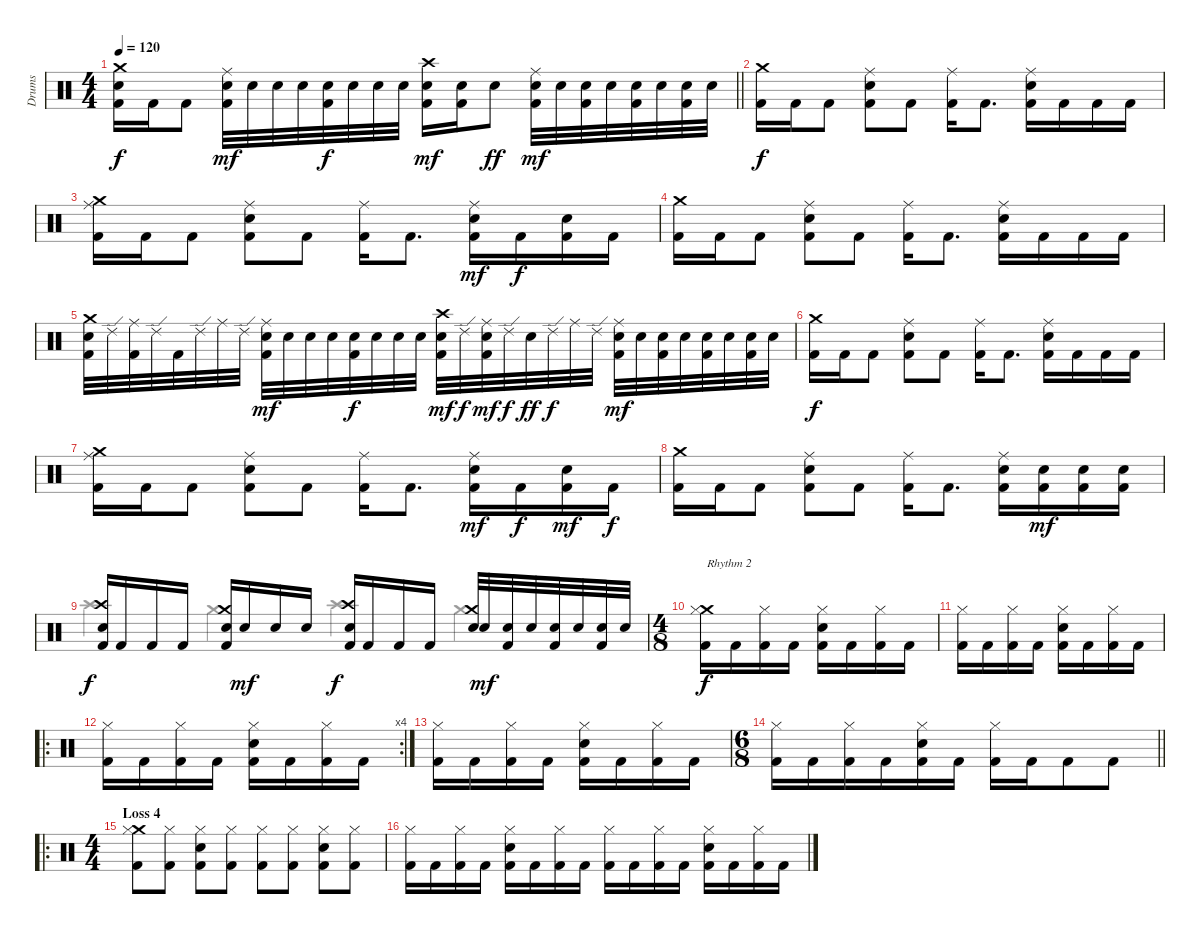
\track ("Drums" "Drums") {instrument percussion}
\staff {score}
\articulation defaults
\voice
\ts (4 4)
\tempo 120
\clef neutral
\barLineRight lightlight
\ks c
("Crash medium (hit)" "Electric Snare (hit)" "Kick (hit) 2").16{dy f} "Kick (hit) 2".16 "Kick (hit) 2".8 ("Ride (middle)" "Electric Snare (hit)" "Kick (hit) 2").32{dy mf} "Electric Snare (hit)".32 "Electric Snare (hit)".32 "Electric Snare (hit)".32 ("Electric Snare (hit)" "Kick (hit) 2").32{dy f} "Electric Snare (hit)".32 "Electric Snare (hit)".32 "Electric Snare (hit)".32 ("Crash high (hit)" "Electric Snare (hit)" "Kick (hit) 2").16{dy mf} ("Electric Snare (hit)" "Kick (hit) 2").16 "Electric Snare (hit)".8{dy ff} ("Ride (middle)" "Electric Snare (hit)" "Kick (hit) 2").32{dy mf} "Electric Snare (hit)".32 ("Electric Snare (hit)" "Kick (hit) 2").32 "Electric Snare (hit)".32 ("Electric Snare (hit)" "Kick (hit) 2").32 "Electric Snare (hit)".32 ("Electric Snare (hit)" "Kick (hit) 2").32 "Electric Snare (hit)".32 |
("Crash medium (hit)" "Kick (hit) 2").16{dy f} "Kick (hit) 2".16 "Kick (hit) 2".8 ("Ride (middle)" "Electric Snare (hit)" "Kick (hit) 2").8 "Kick (hit) 2".8 ("Ride (middle)" "Kick (hit) 2").16 "Kick (hit) 2".8{d} ("Ride (middle)" "Electric Snare (hit)" "Kick (hit) 2").16 "Kick (hit) 2".16 "Kick (hit) 2".16 "Kick (hit) 2".16 |
("Crash medium (hit)" "Ride (middle)" "Kick (hit) 2").16 "Kick (hit) 2".16 "Kick (hit) 2".8 ("Ride (middle)" "Electric Snare (hit)" "Kick (hit) 2").8 "Kick (hit) 2".8 ("Ride (middle)" "Kick (hit) 2").16 "Kick (hit) 2".8{d} ("Ride (middle)" "Electric Snare (hit)" "Kick (hit) 2").16{dy mf} "Kick (hit) 2".16{dy f} ("Electric Snare (hit)" "Kick (hit) 2").16 "Kick (hit) 2".16 |
("Crash medium (hit)" "Kick (hit) 2").16 "Kick (hit) 2".16 "Kick (hit) 2".8 ("Ride (middle)" "Electric Snare (hit)" "Kick (hit) 2").8 "Kick (hit) 2".8 ("Ride (middle)" "Kick (hit) 2").16 "Kick (hit) 2".8{d} ("Ride (middle)" "Electric Snare (hit)" "Kick (hit) 2").16 "Kick (hit) 2".16 "Kick (hit) 2".16 "Kick (hit) 2".16 |
("Crash medium (hit)" "Electric Snare (hit)" "Kick (hit) 2").32 "Ride (edge) 2".32 ("Ride (middle)" "Kick (hit) 2").32 "Ride (edge) 2".32 "Kick (hit) 2".32 "Ride (edge) 2".32 "Ride (middle)".32 "Ride (edge) 2".32 ("Ride (middle)" "Electric Snare (hit)" "Kick (hit) 2").32{dy mf} "Electric Snare (hit)".32 "Electric Snare (hit)".32 "Electric Snare (hit)".32 ("Electric Snare (hit)" "Kick (hit) 2").32{dy f} "Electric Snare (hit)".32 "Electric Snare (hit)".32 "Electric Snare (hit)".32 ("Crash high (hit)" "Electric Snare (hit)" "Kick (hit) 2").32{dy mf} "Ride (edge) 2".32{dy f} ("Ride (middle)" "Electric Snare (hit)" "Kick (hit) 2").32{dy mf} "Ride (edge) 2".32{dy f} "Electric Snare (hit)".32{dy ff} "Ride (edge) 2".32{dy f} "Ride (middle)".32 "Ride (edge) 2".32 ("Ride (middle)" "Electric Snare (hit)" "Kick (hit) 2").32{dy mf} "Electric Snare (hit)".32 ("Electric Snare (hit)" "Kick (hit) 2").32 "Electric Snare (hit)".32 ("Electric Snare (hit)" "Kick (hit) 2").32 "Electric Snare (hit)".32 ("Electric Snare (hit)" "Kick (hit) 2").32 "Electric Snare (hit)".32 |
("Crash medium (hit)" "Kick (hit) 2").16{dy f} "Kick (hit) 2".16 "Kick (hit) 2".8 ("Ride (middle)" "Electric Snare (hit)" "Kick (hit) 2").8 "Kick (hit) 2".8 ("Ride (middle)" "Kick (hit) 2").16 "Kick (hit) 2".8{d} ("Ride (middle)" "Electric Snare (hit)" "Kick (hit) 2").16 "Kick (hit) 2".16 "Kick (hit) 2".16 "Kick (hit) 2".16 |
("Crash medium (hit)" "Ride (middle)" "Kick (hit) 2").16 "Kick (hit) 2".16 "Kick (hit) 2".8 ("Ride (middle)" "Electric Snare (hit)" "Kick (hit) 2").8 "Kick (hit) 2".8 ("Ride (middle)" "Kick (hit) 2").16 "Kick (hit) 2".8{d} ("Ride (middle)" "Electric Snare (hit)" "Kick (hit) 2").16{dy mf} "Kick (hit) 2".16{dy f} ("Electric Snare (hit)" "Kick (hit) 2").16{dy mf} "Kick (hit) 2".16{dy f} |
("Crash medium (hit)" "Kick (hit) 2").16 "Kick (hit) 2".16 "Kick (hit) 2".8 ("Ride (middle)" "Electric Snare (hit)" "Kick (hit) 2").8 "Kick (hit) 2".8 ("Ride (middle)" "Kick (hit) 2").16 "Kick (hit) 2".8{d} ("Ride (middle)" "Electric Snare (hit)" "Kick (hit) 2").16 ("Electric Snare (hit)" "Kick (hit) 2").16{dy mf} ("Electric Snare (hit)" "Kick (hit) 2").16 ("Electric Snare (hit)" "Kick (hit) 2").16 |
("Crash high (hit)" "Electric Snare (hit)" "Kick (hit) 2").16{dy f} "Kick (hit) 2".16 "Kick (hit) 2".16 "Kick (hit) 2".16 ("Crash medium (hit)" "Electric Snare (hit)" "Kick (hit) 2").16 "Electric Snare (hit)".16{dy mf} "Electric Snare (hit)".16 "Electric Snare (hit)".16 ("Crash high (hit)" "Electric Snare (hit)" "Kick (hit) 2").16{dy f} "Kick (hit) 2".16 "Kick (hit) 2".16 "Kick (hit) 2".16 ("Crash medium (hit)" "Electric Snare (hit)").32 "Electric Snare (hit)".32{dy mf} ("Electric Snare (hit)" "Kick (hit) 2").32 "Electric Snare (hit)".32 ("Electric Snare (hit)" "Kick (hit) 2").32 "Electric Snare (hit)".32 ("Electric Snare (hit)" "Kick (hit) 2").32 "Electric Snare (hit)".32 |
\ts (4 8)
("Crash medium (hit)" "Hi-Hat (closed)" "Kick (hit) 2").16{txt "Rhythm 2" dy f} "Kick (hit) 2".16 ("Hi-Hat (closed)" "Kick (hit) 2").16 "Kick (hit) 2".16 ("Hi-Hat (closed)" "Electric Snare (hit)" "Kick (hit) 2").16 "Kick (hit) 2".16 ("Hi-Hat (closed)" "Kick (hit) 2").16 "Kick (hit) 2".16 |
("Hi-Hat (closed)" "Kick (hit) 2").16 "Kick (hit) 2".16 ("Hi-Hat (closed)" "Kick (hit) 2").16 "Kick (hit) 2".16 ("Hi-Hat (closed)" "Electric Snare (hit)" "Kick (hit) 2").16 "Kick (hit) 2".16 ("Hi-Hat (closed)" "Kick (hit) 2").16 "Kick (hit) 2".16 |
\ro
\rc 4
("Hi-Hat (closed)" "Kick (hit) 2").16 "Kick (hit) 2".16 ("Hi-Hat (closed)" "Kick (hit) 2").16 "Kick (hit) 2".16 ("Hi-Hat (closed)" "Electric Snare (hit)" "Kick (hit) 2").16 "Kick (hit) 2".16 ("Hi-Hat (closed)" "Kick (hit) 2").16 "Kick (hit) 2".16 |
("Hi-Hat (closed)" "Kick (hit) 2").16 "Kick (hit) 2".16 ("Hi-Hat (closed)" "Kick (hit) 2").16 "Kick (hit) 2".16 ("Hi-Hat (closed)" "Electric Snare (hit)" "Kick (hit) 2").16 "Kick (hit) 2".16 ("Hi-Hat (closed)" "Kick (hit) 2").16 "Kick (hit) 2".16 |
\ts (6 8)
\barLineRight lightlight
("Hi-Hat (closed)" "Kick (hit) 2").16 "Kick (hit) 2".16 ("Hi-Hat (closed)" "Kick (hit) 2").16 "Kick (hit) 2".16 ("Hi-Hat (closed)" "Electric Snare (hit)" "Kick (hit) 2").16 "Kick (hit) 2".16 ("Hi-Hat (closed)" "Kick (hit) 2").16 "Kick (hit) 2".16 "Kick (hit) 2".8 "Kick (hit) 2".8 |
\ro
\ts (4 4)
\section ("" "Loss 4")
("Crash medium (hit)" "Hi-Hat (closed)" "Kick (hit) 2").8 ("Hi-Hat (closed)" "Kick (hit) 2").8 ("Hi-Hat (closed)" "Electric Snare (hit)" "Kick (hit) 2").8 ("Hi-Hat (closed)" "Kick (hit) 2").8 ("Hi-Hat (closed)" "Kick (hit) 2").8 ("Hi-Hat (closed)" "Kick (hit) 2").8 ("Hi-Hat (closed)" "Electric Snare (hit)" "Kick (hit) 2").8 ("Hi-Hat (closed)" "Kick (hit) 2").8 |
("Hi-Hat (closed)" "Kick (hit) 2").16 "Kick (hit) 2".16 ("Hi-Hat (closed)" "Kick (hit) 2").16 "Kick (hit) 2".16 ("Hi-Hat (closed)" "Electric Snare (hit)" "Kick (hit) 2").16 "Kick (hit) 2".16 ("Hi-Hat (closed)" "Kick (hit) 2").16 "Kick (hit) 2".16 ("Hi-Hat (closed)" "Kick (hit) 2").16 "Kick (hit) 2".16 ("Hi-Hat (closed)" "Kick (hit) 2").16 "Kick (hit) 2".16 ("Hi-Hat (closed)" "Electric Snare (hit)" "Kick (hit) 2").16 "Kick (hit) 2".16 ("Hi-Hat (closed)" "Kick (hit) 2").16 "Kick (hit) 2".16
\voice
\clef neutral
\ottava regular
\simile none
\barLineRight lightlight
\ks c
|
|
|
|
|
|
|
|
"Crash high (hit)".4 "Crash medium (hit)".4 "Crash high (hit)".4 "Crash medium (hit)".4 |
|
|
|
|
\barLineRight lightlight
|
|
